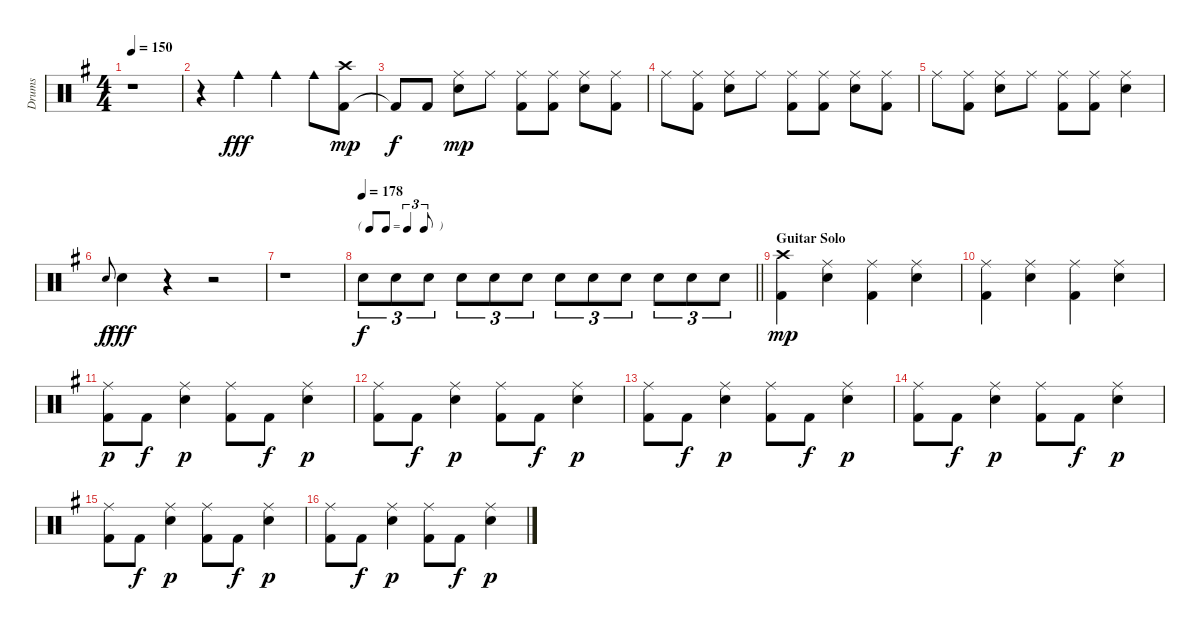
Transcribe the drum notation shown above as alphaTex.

\track ("Drums" "Drums") {instrument percussion}
\staff {score}
\articulation defaults
\ts (4 4)
\tempo 150
\clef neutral
\ks g
r.1{dy mp} |
r.4 "Cowbell medium (hit)".4{dy fff} "Cowbell medium (hit)".4 "Cowbell medium (hit)".8 ("Kick (hit) 2" "Crash high (hit)").8{dy mp} |
"Kick (hit) 2"{t}.8{dy f} "Kick (hit) 2".8 ("Electric Snare (hit)" "Ride (middle)").8{dy mp} "Ride (middle)".8 ("Kick (hit) 2" "Ride (middle)").8 ("Kick (hit) 2" "Ride (middle)").8 ("Electric Snare (hit)" "Ride (middle)").8 ("Kick (hit) 2" "Ride (middle)").8 |
"Ride (middle)".8 ("Kick (hit) 2" "Ride (middle)").8 ("Electric Snare (hit)" "Ride (middle)").8 "Ride (middle)".8 ("Kick (hit) 2" "Ride (middle)").8 ("Kick (hit) 2" "Ride (middle)").8 ("Electric Snare (hit)" "Ride (middle)").8 ("Kick (hit) 2" "Ride (middle)").8 |
"Ride (middle)".8 ("Kick (hit) 2" "Ride (middle)").8 ("Electric Snare (hit)" "Ride (middle)").8 "Ride (middle)".8 ("Kick (hit) 2" "Ride (middle)").8 ("Kick (hit) 2" "Ride (middle)").8 ("Electric Snare (hit)" "Ride (middle)").4 |
"Electric Snare (hit)".8{gr onbeat dy f} "Electric Snare (hit)".4{dy fff} r.4 r.2 |
r.1 |
\tf triplet8th
\tempo 178
\barLineRight lightlight "Electric Snare (hit)".8{tu (3 2) dy f} "Electric Snare (hit)".8{tu (3 2)} "Electric Snare (hit)".8{tu (3 2)} "Electric Snare (hit)".8{tu (3 2)} "Electric Snare (hit)".8{tu (3 2)} "Electric Snare (hit)".8{tu (3 2)} "Electric Snare (hit)".8{tu (3 2)} "Electric Snare (hit)".8{tu (3 2)} "Electric Snare (hit)".8{tu (3 2)} "Electric Snare (hit)".8{tu (3 2)} "Electric Snare (hit)".8{tu (3 2)} "Electric Snare (hit)".8{tu (3 2)}
|
\section ("" "Guitar Solo")
("Kick (hit) 2" "Crash high (hit)").4{dy mp} ("Electric Snare (hit)" "Ride (middle)").4 ("Kick (hit) 2" "Ride (middle)").4 ("Electric Snare (hit)" "Ride (middle)").4 |
("Kick (hit) 2" "Ride (middle)").4 ("Electric Snare (hit)" "Ride (middle)").4 ("Kick (hit) 2" "Ride (middle)").4 ("Electric Snare (hit)" "Ride (middle)").4 |
("Kick (hit) 2" "Ride (middle)").8{dy p} "Kick (hit) 2".8{dy f} ("Electric Snare (hit)" "Ride (middle)").4{dy p} ("Kick (hit) 2" "Ride (middle)").8 "Kick (hit) 2".8{dy f} ("Electric Snare (hit)" "Ride (middle)").4{dy p} |
("Kick (hit) 2" "Ride (middle)").8 "Kick (hit) 2".8{dy f} ("Electric Snare (hit)" "Ride (middle)").4{dy p} ("Kick (hit) 2" "Ride (middle)").8 "Kick (hit) 2".8{dy f} ("Electric Snare (hit)" "Ride (middle)").4{dy p} |
("Kick (hit) 2" "Ride (middle)").8 "Kick (hit) 2".8{dy f} ("Electric Snare (hit)" "Ride (middle)").4{dy p} ("Kick (hit) 2" "Ride (middle)").8 "Kick (hit) 2".8{dy f} ("Electric Snare (hit)" "Ride (middle)").4{dy p} |
("Kick (hit) 2" "Ride (middle)").8 "Kick (hit) 2".8{dy f} ("Electric Snare (hit)" "Ride (middle)").4{dy p} ("Kick (hit) 2" "Ride (middle)").8 "Kick (hit) 2".8{dy f} ("Electric Snare (hit)" "Ride (middle)").4{dy p} |
("Kick (hit) 2" "Ride (middle)").8 "Kick (hit) 2".8{dy f} ("Electric Snare (hit)" "Ride (middle)").4{dy p} ("Kick (hit) 2" "Ride (middle)").8 "Kick (hit) 2".8{dy f} ("Electric Snare (hit)" "Ride (middle)").4{dy p} |
("Kick (hit) 2" "Ride (middle)").8 "Kick (hit) 2".8{dy f} ("Electric Snare (hit)" "Ride (middle)").4{dy p} ("Kick (hit) 2" "Ride (middle)").8 "Kick (hit) 2".8{dy f} ("Electric Snare (hit)" "Ride (middle)").4{dy p}
